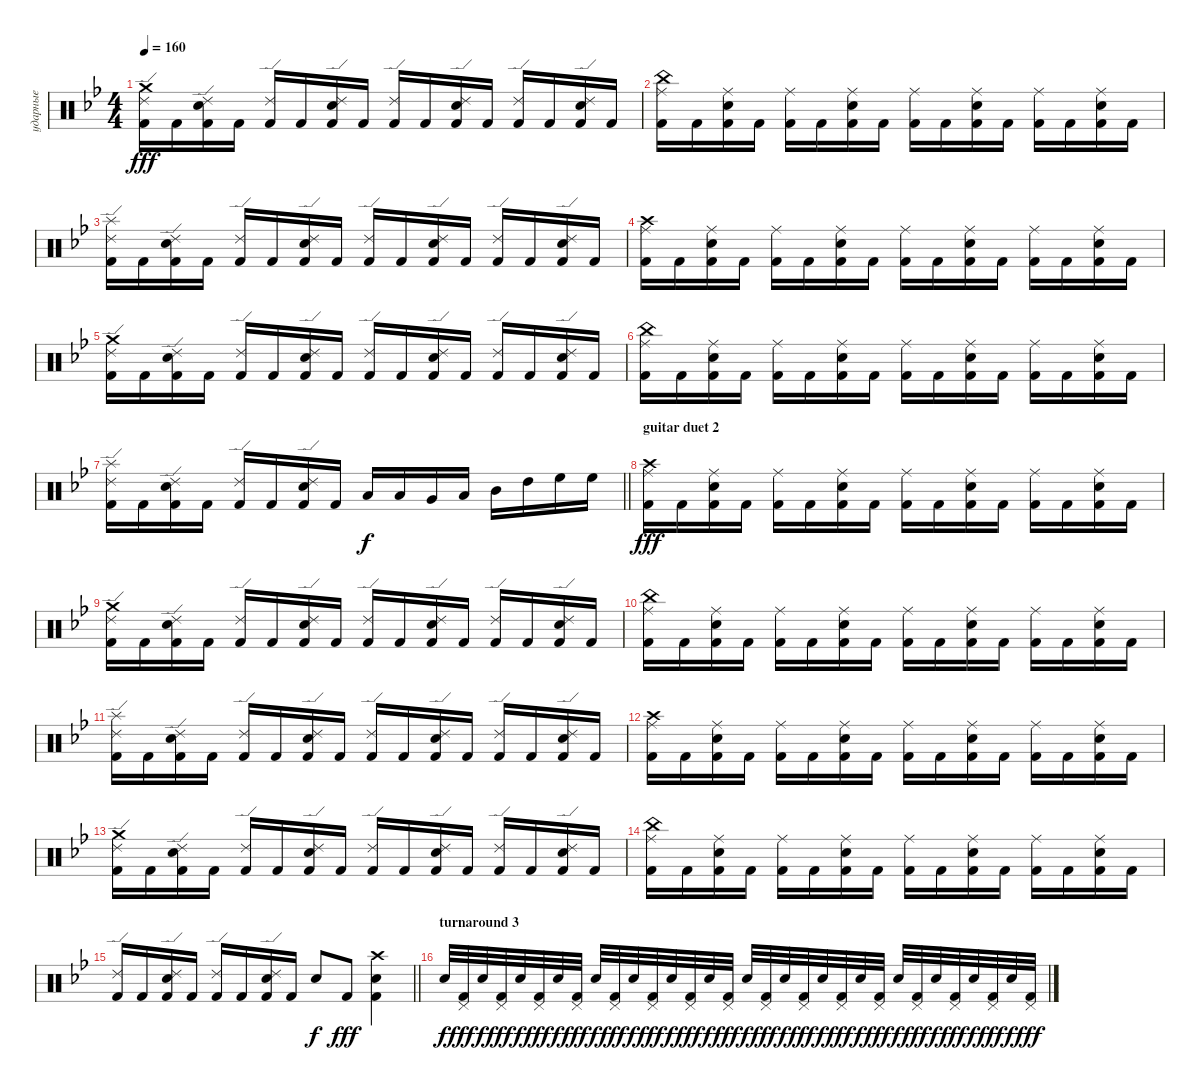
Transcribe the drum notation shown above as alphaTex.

\track ("ударные" "ударные") {instrument percussion}
\staff {score}
\articulation defaults
\ts (4 4)
\tempo 160
\clef neutral
\ks gminor
("Ride (edge) 2" "Kick (hit) 2" "Crash medium (hit)").16{dy fff} "Kick (hit) 2".16 ("Ride (edge) 2" "Electric Snare (hit)" "Kick (hit) 2").16 "Kick (hit) 2".16 ("Ride (edge) 2" "Kick (hit) 2").16 "Kick (hit) 2".16 ("Ride (edge) 2" "Electric Snare (hit)" "Kick (hit) 2").16 "Kick (hit) 2".16 ("Ride (edge) 2" "Kick (hit) 2").16 "Kick (hit) 2".16 ("Ride (edge) 2" "Electric Snare (hit)" "Kick (hit) 2").16 "Kick (hit) 2".16 ("Ride (edge) 2" "Kick (hit) 2").16 "Kick (hit) 2".16 ("Ride (edge) 2" "Electric Snare (hit)" "Kick (hit) 2").16 "Kick (hit) 2".16 |
("Ride (middle)" "Kick (hit) 2" "China (hit)").16 "Kick (hit) 2".16 ("Ride (middle)" "Electric Snare (hit)" "Kick (hit) 2").16 "Kick (hit) 2".16 ("Ride (middle)" "Kick (hit) 2").16 "Kick (hit) 2".16 ("Ride (middle)" "Electric Snare (hit)" "Kick (hit) 2").16 "Kick (hit) 2".16 ("Ride (middle)" "Kick (hit) 2").16 "Kick (hit) 2".16 ("Ride (middle)" "Electric Snare (hit)" "Kick (hit) 2").16 "Kick (hit) 2".16 ("Ride (middle)" "Kick (hit) 2").16 "Kick (hit) 2".16 ("Ride (middle)" "Electric Snare (hit)" "Kick (hit) 2").16 "Kick (hit) 2".16 |
("Ride (edge) 2" "Kick (hit) 2" "Splash (hit)").16 "Kick (hit) 2".16 ("Ride (edge) 2" "Electric Snare (hit)" "Kick (hit) 2").16 "Kick (hit) 2".16 ("Ride (edge) 2" "Kick (hit) 2").16 "Kick (hit) 2".16 ("Ride (edge) 2" "Electric Snare (hit)" "Kick (hit) 2").16 "Kick (hit) 2".16 ("Ride (edge) 2" "Kick (hit) 2").16 "Kick (hit) 2".16 ("Ride (edge) 2" "Electric Snare (hit)" "Kick (hit) 2").16 "Kick (hit) 2".16 ("Ride (edge) 2" "Kick (hit) 2").16 "Kick (hit) 2".16 ("Ride (edge) 2" "Electric Snare (hit)" "Kick (hit) 2").16 "Kick (hit) 2".16 |
("Ride (middle)" "Kick (hit) 2" "Crash high (hit)").16 "Kick (hit) 2".16 ("Ride (middle)" "Electric Snare (hit)" "Kick (hit) 2").16 "Kick (hit) 2".16 ("Ride (middle)" "Kick (hit) 2").16 "Kick (hit) 2".16 ("Ride (middle)" "Electric Snare (hit)" "Kick (hit) 2").16 "Kick (hit) 2".16 ("Ride (middle)" "Kick (hit) 2").16 "Kick (hit) 2".16 ("Ride (middle)" "Electric Snare (hit)" "Kick (hit) 2").16 "Kick (hit) 2".16 ("Ride (middle)" "Kick (hit) 2").16 "Kick (hit) 2".16 ("Ride (middle)" "Electric Snare (hit)" "Kick (hit) 2").16 "Kick (hit) 2".16 |
("Ride (edge) 2" "Kick (hit) 2" "Crash medium (hit)").16 "Kick (hit) 2".16 ("Ride (edge) 2" "Electric Snare (hit)" "Kick (hit) 2").16 "Kick (hit) 2".16 ("Ride (edge) 2" "Kick (hit) 2").16 "Kick (hit) 2".16 ("Ride (edge) 2" "Electric Snare (hit)" "Kick (hit) 2").16 "Kick (hit) 2".16 ("Ride (edge) 2" "Kick (hit) 2").16 "Kick (hit) 2".16 ("Ride (edge) 2" "Electric Snare (hit)" "Kick (hit) 2").16 "Kick (hit) 2".16 ("Ride (edge) 2" "Kick (hit) 2").16 "Kick (hit) 2".16 ("Ride (edge) 2" "Electric Snare (hit)" "Kick (hit) 2").16 "Kick (hit) 2".16 |
("Ride (middle)" "Kick (hit) 2" "China (hit)").16 "Kick (hit) 2".16 ("Ride (middle)" "Electric Snare (hit)" "Kick (hit) 2").16 "Kick (hit) 2".16 ("Ride (middle)" "Kick (hit) 2").16 "Kick (hit) 2".16 ("Ride (middle)" "Electric Snare (hit)" "Kick (hit) 2").16 "Kick (hit) 2".16 ("Ride (middle)" "Kick (hit) 2").16 "Kick (hit) 2".16 ("Ride (middle)" "Electric Snare (hit)" "Kick (hit) 2").16 "Kick (hit) 2".16 ("Ride (middle)" "Kick (hit) 2").16 "Kick (hit) 2".16 ("Ride (middle)" "Electric Snare (hit)" "Kick (hit) 2").16 "Kick (hit) 2".16 |
\barLineRight lightlight
("Ride (edge) 2" "Kick (hit) 2" "Splash (hit)").16 "Kick (hit) 2".16 ("Ride (edge) 2" "Electric Snare (hit)" "Kick (hit) 2").16 "Kick (hit) 2".16 ("Ride (edge) 2" "Kick (hit) 2").16 "Kick (hit) 2".16 ("Ride (edge) 2" "Electric Snare (hit)" "Kick (hit) 2").16 "Kick (hit) 2".16 "Low Floor Tom (hit)".16{dy f} "Low Floor Tom (hit)".16 "Very Low Tom (hit)".16 "Low Tom (hit)".16 "Mid Tom (hit)".16 "High Tom (hit)".16 "High Floor Tom (hit)".16 "High Floor Tom (hit)".16 |
\section ("" "guitar duet 2")
("Ride (middle)" "Kick (hit) 2" "Crash high (hit)").16{dy fff} "Kick (hit) 2".16 ("Ride (middle)" "Electric Snare (hit)" "Kick (hit) 2").16 "Kick (hit) 2".16 ("Ride (middle)" "Kick (hit) 2").16 "Kick (hit) 2".16 ("Ride (middle)" "Electric Snare (hit)" "Kick (hit) 2").16 "Kick (hit) 2".16 ("Ride (middle)" "Kick (hit) 2").16 "Kick (hit) 2".16 ("Ride (middle)" "Electric Snare (hit)" "Kick (hit) 2").16 "Kick (hit) 2".16 ("Ride (middle)" "Kick (hit) 2").16 "Kick (hit) 2".16 ("Ride (middle)" "Electric Snare (hit)" "Kick (hit) 2").16 "Kick (hit) 2".16 |
("Ride (edge) 2" "Kick (hit) 2" "Crash medium (hit)").16 "Kick (hit) 2".16 ("Ride (edge) 2" "Electric Snare (hit)" "Kick (hit) 2").16 "Kick (hit) 2".16 ("Ride (edge) 2" "Kick (hit) 2").16 "Kick (hit) 2".16 ("Ride (edge) 2" "Electric Snare (hit)" "Kick (hit) 2").16 "Kick (hit) 2".16 ("Ride (edge) 2" "Kick (hit) 2").16 "Kick (hit) 2".16 ("Ride (edge) 2" "Electric Snare (hit)" "Kick (hit) 2").16 "Kick (hit) 2".16 ("Ride (edge) 2" "Kick (hit) 2").16 "Kick (hit) 2".16 ("Ride (edge) 2" "Electric Snare (hit)" "Kick (hit) 2").16 "Kick (hit) 2".16 |
("Ride (middle)" "Kick (hit) 2" "China (hit)").16 "Kick (hit) 2".16 ("Ride (middle)" "Electric Snare (hit)" "Kick (hit) 2").16 "Kick (hit) 2".16 ("Ride (middle)" "Kick (hit) 2").16 "Kick (hit) 2".16 ("Ride (middle)" "Electric Snare (hit)" "Kick (hit) 2").16 "Kick (hit) 2".16 ("Ride (middle)" "Kick (hit) 2").16 "Kick (hit) 2".16 ("Ride (middle)" "Electric Snare (hit)" "Kick (hit) 2").16 "Kick (hit) 2".16 ("Ride (middle)" "Kick (hit) 2").16 "Kick (hit) 2".16 ("Ride (middle)" "Electric Snare (hit)" "Kick (hit) 2").16 "Kick (hit) 2".16 |
("Ride (edge) 2" "Kick (hit) 2" "Splash (hit)").16 "Kick (hit) 2".16 ("Ride (edge) 2" "Electric Snare (hit)" "Kick (hit) 2").16 "Kick (hit) 2".16 ("Ride (edge) 2" "Kick (hit) 2").16 "Kick (hit) 2".16 ("Ride (edge) 2" "Electric Snare (hit)" "Kick (hit) 2").16 "Kick (hit) 2".16 ("Ride (edge) 2" "Kick (hit) 2").16 "Kick (hit) 2".16 ("Ride (edge) 2" "Electric Snare (hit)" "Kick (hit) 2").16 "Kick (hit) 2".16 ("Ride (edge) 2" "Kick (hit) 2").16 "Kick (hit) 2".16 ("Ride (edge) 2" "Electric Snare (hit)" "Kick (hit) 2").16 "Kick (hit) 2".16 |
("Ride (middle)" "Kick (hit) 2" "Crash high (hit)").16 "Kick (hit) 2".16 ("Ride (middle)" "Electric Snare (hit)" "Kick (hit) 2").16 "Kick (hit) 2".16 ("Ride (middle)" "Kick (hit) 2").16 "Kick (hit) 2".16 ("Ride (middle)" "Electric Snare (hit)" "Kick (hit) 2").16 "Kick (hit) 2".16 ("Ride (middle)" "Kick (hit) 2").16 "Kick (hit) 2".16 ("Ride (middle)" "Electric Snare (hit)" "Kick (hit) 2").16 "Kick (hit) 2".16 ("Ride (middle)" "Kick (hit) 2").16 "Kick (hit) 2".16 ("Ride (middle)" "Electric Snare (hit)" "Kick (hit) 2").16 "Kick (hit) 2".16 |
("Ride (edge) 2" "Kick (hit) 2" "Crash medium (hit)").16 "Kick (hit) 2".16 ("Ride (edge) 2" "Electric Snare (hit)" "Kick (hit) 2").16 "Kick (hit) 2".16 ("Ride (edge) 2" "Kick (hit) 2").16 "Kick (hit) 2".16 ("Ride (edge) 2" "Electric Snare (hit)" "Kick (hit) 2").16 "Kick (hit) 2".16 ("Ride (edge) 2" "Kick (hit) 2").16 "Kick (hit) 2".16 ("Ride (edge) 2" "Electric Snare (hit)" "Kick (hit) 2").16 "Kick (hit) 2".16 ("Ride (edge) 2" "Kick (hit) 2").16 "Kick (hit) 2".16 ("Ride (edge) 2" "Electric Snare (hit)" "Kick (hit) 2").16 "Kick (hit) 2".16 |
("Ride (middle)" "Kick (hit) 2" "China (hit)").16 "Kick (hit) 2".16 ("Ride (middle)" "Electric Snare (hit)" "Kick (hit) 2").16 "Kick (hit) 2".16 ("Ride (middle)" "Kick (hit) 2").16 "Kick (hit) 2".16 ("Ride (middle)" "Electric Snare (hit)" "Kick (hit) 2").16 "Kick (hit) 2".16 ("Ride (middle)" "Kick (hit) 2").16 "Kick (hit) 2".16 ("Ride (middle)" "Electric Snare (hit)" "Kick (hit) 2").16 "Kick (hit) 2".16 ("Ride (middle)" "Kick (hit) 2").16 "Kick (hit) 2".16 ("Ride (middle)" "Electric Snare (hit)" "Kick (hit) 2").16 "Kick (hit) 2".16 |
\barLineRight lightlight
("Ride (edge) 2" "Kick (hit) 2").16 "Kick (hit) 2".16 ("Ride (edge) 2" "Electric Snare (hit)" "Kick (hit) 2").16 "Kick (hit) 2".16 ("Ride (edge) 2" "Kick (hit) 2").16 "Kick (hit) 2".16 ("Ride (edge) 2" "Electric Snare (hit)" "Kick (hit) 2").16 "Kick (hit) 2".16 "Electric Snare (hit)".8{dy f} "Kick (hit) 2".8{dy fff} ("Crash high (hit)" "Electric Snare (hit)" "Kick (hit) 2").4 |
\section ("" "turnaround 3")
"Electric Snare (hit)".32{dy f} ("Kick (hit) 2" "Pedal Hi-Hat (hit)").32{dy fff} "Electric Snare (hit)".32{dy f} ("Kick (hit) 2" "Pedal Hi-Hat (hit)").32{dy fff} "Electric Snare (hit)".32{dy f} ("Kick (hit) 2" "Pedal Hi-Hat (hit)").32{dy fff} "Electric Snare (hit)".32{dy f} ("Kick (hit) 2" "Pedal Hi-Hat (hit)").32{dy fff} "Electric Snare (hit)".32{dy f} ("Kick (hit) 2" "Pedal Hi-Hat (hit)").32{dy fff} "Electric Snare (hit)".32{dy f} ("Kick (hit) 2" "Pedal Hi-Hat (hit)").32{dy fff} "Electric Snare (hit)".32{dy f} ("Kick (hit) 2" "Pedal Hi-Hat (hit)").32{dy fff} "Electric Snare (hit)".32{dy f} ("Kick (hit) 2" "Pedal Hi-Hat (hit)").32{dy fff} "Electric Snare (hit)".32{dy f} ("Kick (hit) 2" "Pedal Hi-Hat (hit)").32{dy fff} "Electric Snare (hit)".32{dy f} ("Kick (hit) 2" "Pedal Hi-Hat (hit)").32{dy fff} "Electric Snare (hit)".32{dy f} ("Kick (hit) 2" "Pedal Hi-Hat (hit)").32{dy fff} "Electric Snare (hit)".32{dy f} ("Kick (hit) 2" "Pedal Hi-Hat (hit)").32{dy fff} "Electric Snare (hit)".32{dy f} ("Kick (hit) 2" "Pedal Hi-Hat (hit)").32{dy fff} "Electric Snare (hit)".32{dy f} ("Kick (hit) 2" "Pedal Hi-Hat (hit)").32{dy fff} "Electric Snare (hit)".32{dy f} ("Kick (hit) 2" "Pedal Hi-Hat (hit)").32{dy fff} "Electric Snare (hit)".32{dy f} ("Kick (hit) 2" "Pedal Hi-Hat (hit)").32{dy fff}
